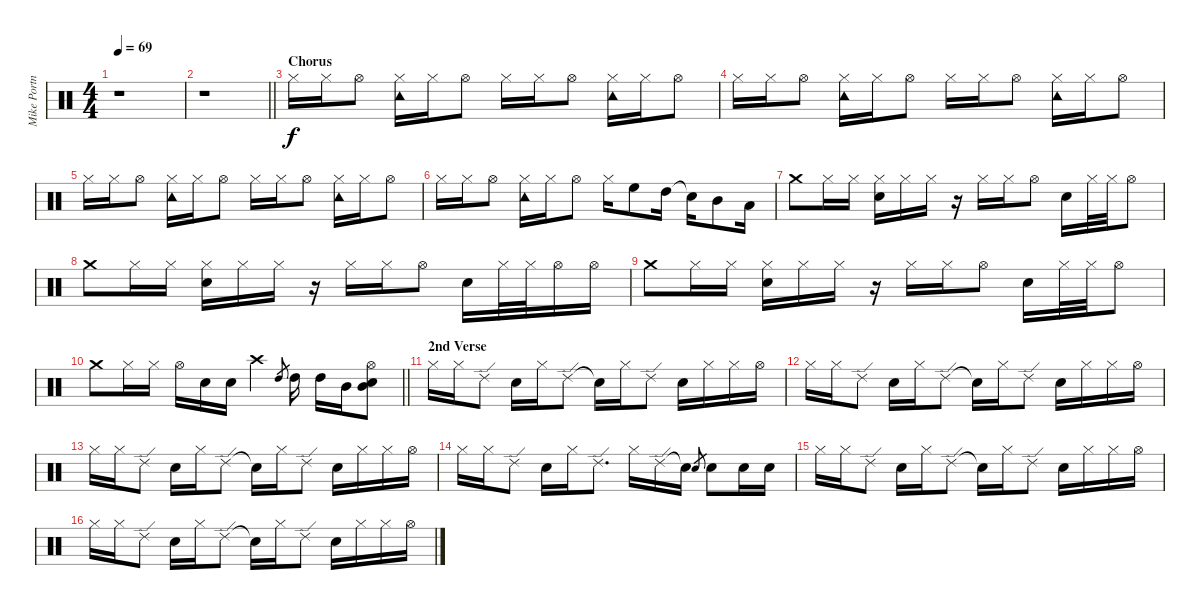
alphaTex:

\track ("Mike Portnoy" "Mike Portn") {instrument percussion}
\staff {score}
\articulation defaults
\ts (4 4)
\tempo 69
\clef neutral
\ks c
r.1{dy f} |
\barLineRight lightlight
r.1 |
\section ("" "Chorus")
"Hi-Hat (closed)".16 "Hi-Hat (closed)".16 "Hi-Hat (open)".8 ("Hi-Hat (closed)" "Tambourine (hit)").16 "Hi-Hat (closed)".16 "Hi-Hat (open)".8 "Hi-Hat (closed)".16 "Hi-Hat (closed)".16 "Hi-Hat (open)".8 ("Hi-Hat (closed)" "Tambourine (hit)").16 "Hi-Hat (closed)".16 "Hi-Hat (open)".8 |
"Hi-Hat (closed)".16 "Hi-Hat (closed)".16 "Hi-Hat (open)".8 ("Hi-Hat (closed)" "Tambourine (hit)").16 "Hi-Hat (closed)".16 "Hi-Hat (open)".8 "Hi-Hat (closed)".16 "Hi-Hat (closed)".16 "Hi-Hat (open)".8 ("Hi-Hat (closed)" "Tambourine (hit)").16 "Hi-Hat (closed)".16 "Hi-Hat (open)".8 |
"Hi-Hat (closed)".16 "Hi-Hat (closed)".16 "Hi-Hat (open)".8 ("Hi-Hat (closed)" "Tambourine (hit)").16 "Hi-Hat (closed)".16 "Hi-Hat (open)".8 "Hi-Hat (closed)".16 "Hi-Hat (closed)".16 "Hi-Hat (open)".8 ("Hi-Hat (closed)" "Tambourine (hit)").16 "Hi-Hat (closed)".16 "Hi-Hat (open)".8 |
"Hi-Hat (closed)".16 "Hi-Hat (closed)".16 "Hi-Hat (open)".8 ("Hi-Hat (closed)" "Tambourine (hit)").16 "Hi-Hat (closed)".16 "Hi-Hat (open)".8 "Hi-Hat (closed)".16 "High Floor Tom (hit)".8 "High Tom (hit)".16 "Snare (hit)"{t}.16 "Mid Tom (hit)".8 "Low Tom (hit)".16 |
"Crash medium (hit)".8 "Hi-Hat (closed)".16 "Hi-Hat (closed)".16 ("Snare (hit) 2" "Hi-Hat (closed)").16 "Hi-Hat (closed)".16 "Hi-Hat (closed)".16 r.16 "Hi-Hat (closed)".16 "Hi-Hat (closed)".16 "Hi-Hat (open)".8 "Snare (hit) 2".16 "Hi-Hat (closed)".32 "Hi-Hat (closed)".32 "Hi-Hat (open)".8 |
"Crash medium (hit)".8 "Hi-Hat (closed)".16 "Hi-Hat (closed)".16 ("Snare (hit) 2" "Hi-Hat (closed)").16 "Hi-Hat (closed)".16 "Hi-Hat (closed)".16 r.16 "Hi-Hat (closed)".16 "Hi-Hat (closed)".16 "Hi-Hat (open)".8 "Snare (hit) 2".16 "Hi-Hat (closed)".32 "Hi-Hat (closed)".32 "Hi-Hat (open)".16 "Hi-Hat (open)".16 |
"Crash medium (hit)".8 "Hi-Hat (closed)".16 "Hi-Hat (closed)".16 ("Snare (hit) 2" "Hi-Hat (closed)").16 "Hi-Hat (closed)".16 "Hi-Hat (closed)".16 r.16 "Hi-Hat (closed)".16 "Hi-Hat (closed)".16 "Hi-Hat (open)".8 "Snare (hit) 2".16 "Hi-Hat (closed)".32 "Hi-Hat (closed)".32 "Hi-Hat (open)".8 |
\barLineRight lightlight "Crash medium (hit)".8 "Hi-Hat (closed)".16 "Hi-Hat (closed)".16 "Hi-Hat (open)".16 "Snare (hit) 2".16 "Snare (hit) 2".16 "Crash high (hit)".4 "High Tom (hit)".8{gr} "High Tom (hit)".16 "High Tom (hit)".16 "Mid Tom (hit)".16
("Snare (hit) 2" "Hi-Hat (open)" "Mid Tom (hit)").8 |
\section ("" "2nd Verse")
"Hi-Hat (closed)".16 "Hi-Hat (closed)".16 "Ride (edge) 2".8 "Snare (hit) 2".16 "Hi-Hat (closed)".16 "Ride (edge) 2".8 "Snare (hit)"{t}.16 "Hi-Hat (closed)".16 "Ride (edge) 2".8 "Snare (hit) 2".16 "Hi-Hat (closed)".16 "Hi-Hat (closed)".16 "Hi-Hat (open)".16 |
"Hi-Hat (closed)".16 "Hi-Hat (closed)".16 "Ride (edge) 2".8 "Snare (hit) 2".16 "Hi-Hat (closed)".16 "Ride (edge) 2".8 "Snare (hit)"{t}.16 "Hi-Hat (closed)".16 "Ride (edge) 2".8 "Snare (hit) 2".16 "Hi-Hat (closed)".16 "Hi-Hat (closed)".16 "Hi-Hat (open)".16 |
"Hi-Hat (closed)".16 "Hi-Hat (closed)".16 "Ride (edge) 2".8 "Snare (hit) 2".16 "Hi-Hat (closed)".16 "Ride (edge) 2".8 "Snare (hit)"{t}.16 "Hi-Hat (closed)".16 "Ride (edge) 2".8 "Snare (hit) 2".16 "Hi-Hat (closed)".16 "Hi-Hat (closed)".16 "Hi-Hat (open)".16 |
"Hi-Hat (closed)".16 "Hi-Hat (closed)".16 "Ride (edge) 2".8 "Snare (hit) 2".16 "Hi-Hat (closed)".16 "Ride (edge) 2".8{d} "Hi-Hat (closed)".16 "Ride (edge) 2".16 "Snare (hit)"{t}.16 "Snare (hit) 2".8{gr} "Snare (hit) 2".8 "Snare (hit) 2".16 "Snare (hit) 2".16 |
"Hi-Hat (closed)".16 "Hi-Hat (closed)".16 "Ride (edge) 2".8 "Snare (hit) 2".16 "Hi-Hat (closed)".16 "Ride (edge) 2".8 "Snare (hit)"{t}.16 "Hi-Hat (closed)".16 "Ride (edge) 2".8 "Snare (hit) 2".16 "Hi-Hat (closed)".16 "Hi-Hat (closed)".16 "Hi-Hat (open)".16 |
"Hi-Hat (closed)".16 "Hi-Hat (closed)".16 "Ride (edge) 2".8 "Snare (hit) 2".16 "Hi-Hat (closed)".16 "Ride (edge) 2".8 "Snare (hit)"{t}.16 "Hi-Hat (closed)".16 "Ride (edge) 2".8 "Snare (hit) 2".16 "Hi-Hat (closed)".16 "Hi-Hat (closed)".16 "Hi-Hat (open)".16
